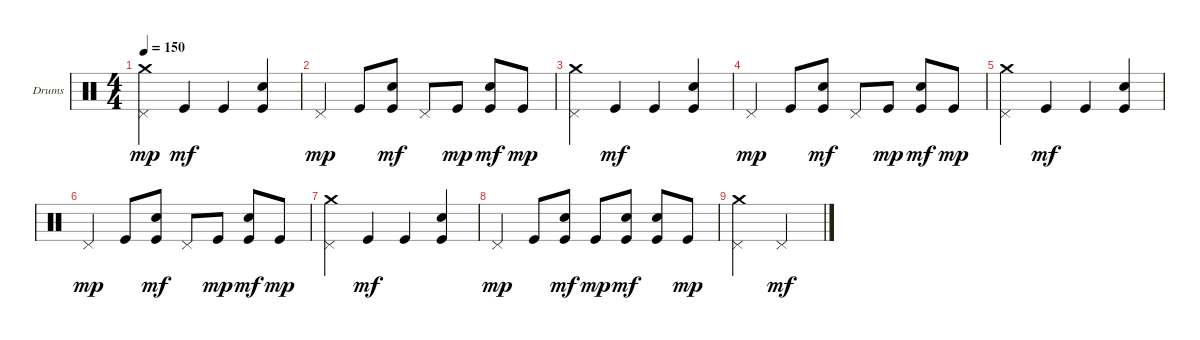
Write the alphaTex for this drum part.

\defaultSystemsLayout 4
\bracketExtendMode groupsimilarinstruments
\firstSystemTrackNameOrientation horizontal
\otherSystemsTrackNameOrientation horizontal
\track ("Е. Кулаков" "Drums") {instrument percussion}
\staff {score}
\articulation defaults
\ts (4 4)
\tempo 150
\clef neutral
\ks c
("Pedal Hi-Hat (hit)" "Crash medium (hit)").4{dy mp} "Kick (hit)".4{dy mf} "Kick (hit)".4 ("Snare (hit) 2" "Kick (hit)").4 |
"Pedal Hi-Hat (hit)".4{dy mp} "Kick (hit)".8 ("Kick (hit)" "Snare (hit) 2").8{dy mf} "Pedal Hi-Hat (hit)".8 "Kick (hit)".8{dy mp} ("Kick (hit)" "Snare (hit) 2").8{dy mf} "Kick (hit)".8{dy mp} |
("Pedal Hi-Hat (hit)" "Crash medium (hit)").4 "Kick (hit)".4{dy mf} "Kick (hit)".4 ("Snare (hit) 2" "Kick (hit)").4 |
"Pedal Hi-Hat (hit)".4{dy mp} "Kick (hit)".8 ("Kick (hit)" "Snare (hit) 2").8{dy mf} "Pedal Hi-Hat (hit)".8 "Kick (hit)".8{dy mp} ("Kick (hit)" "Snare (hit) 2").8{dy mf} "Kick (hit)".8{dy mp} |
("Pedal Hi-Hat (hit)" "Crash medium (hit)").4 "Kick (hit)".4{dy mf} "Kick (hit)".4 ("Snare (hit) 2" "Kick (hit)").4 |
"Pedal Hi-Hat (hit)".4{dy mp} "Kick (hit)".8 ("Kick (hit)" "Snare (hit) 2").8{dy mf} "Pedal Hi-Hat (hit)".8 "Kick (hit)".8{dy mp} ("Kick (hit)" "Snare (hit) 2").8{dy mf} "Kick (hit)".8{dy mp} |
("Pedal Hi-Hat (hit)" "Crash medium (hit)").4 "Kick (hit)".4{dy mf} "Kick (hit)".4 ("Snare (hit) 2" "Kick (hit)").4 |
"Pedal Hi-Hat (hit)".4{dy mp} "Kick (hit)".8 ("Kick (hit)" "Snare (hit) 2").8{dy mf} "Kick (hit)".8{dy mp} ("Kick (hit)" "Snare (hit) 2").8{dy mf} ("Kick (hit)" "Snare (hit) 2").8 "Kick (hit)".8{dy mp} |
("Pedal Hi-Hat (hit)" "Crash medium (hit)").2 "Pedal Hi-Hat (hit)".2{dy mf}
